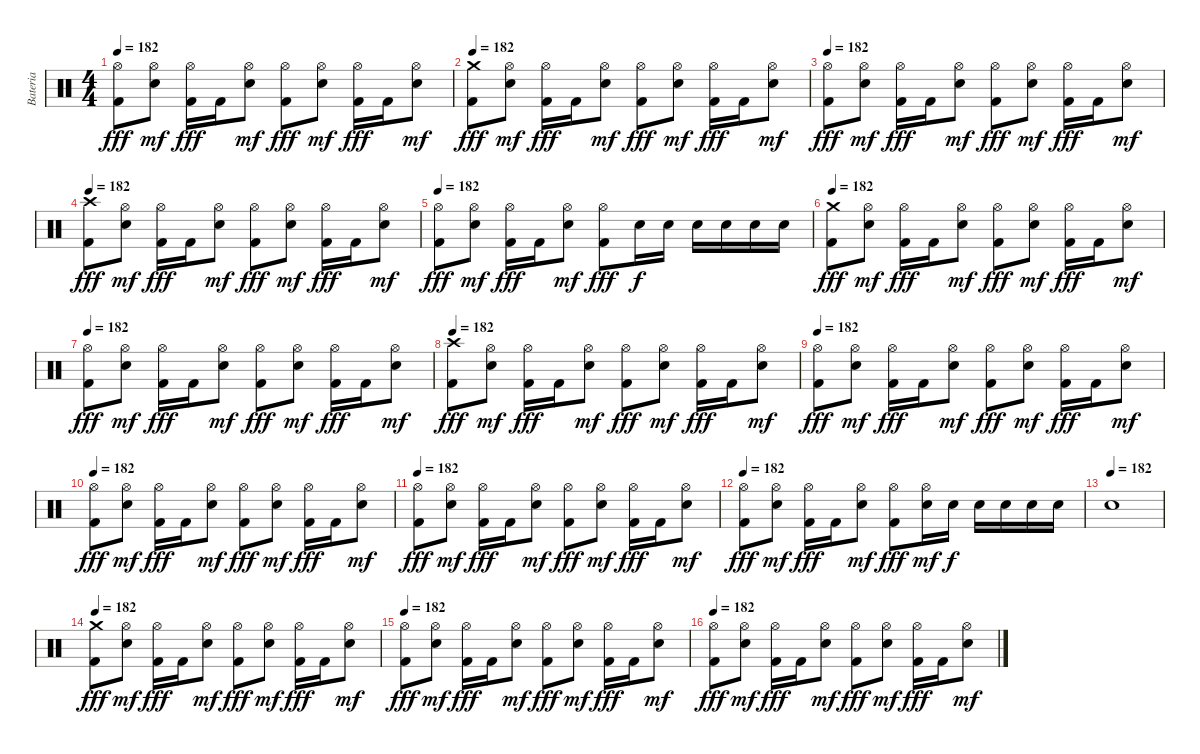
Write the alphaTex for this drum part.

\track ("Bateria" "Bateria") {instrument percussion}
\staff {score}
\articulation defaults
\ts (4 4)
\tempo 182
\clef neutral
\ks c
("Hi-Hat (open)" "Kick (hit) 2").8{dy fff} ("Hi-Hat (open)" "Electric Snare (hit)").8{dy mf} ("Hi-Hat (open)" "Kick (hit) 2").16{dy fff} "Kick (hit) 2".16 ("Hi-Hat (open)" "Electric Snare (hit)").8{dy mf} ("Hi-Hat (open)" "Kick (hit) 2").8{dy fff} ("Hi-Hat (open)" "Electric Snare (hit)").8{dy mf} ("Hi-Hat (open)" "Kick (hit) 2").16{dy fff} "Kick (hit) 2".16 ("Hi-Hat (open)" "Electric Snare (hit)").8{dy mf} |
\tempo 182
("Crash medium (hit)" "Kick (hit) 2").8{dy fff} ("Hi-Hat (open)" "Electric Snare (hit)").8{dy mf} ("Hi-Hat (open)" "Kick (hit) 2").16{dy fff} "Kick (hit) 2".16 ("Hi-Hat (open)" "Electric Snare (hit)").8{dy mf} ("Hi-Hat (open)" "Kick (hit) 2").8{dy fff} ("Hi-Hat (open)" "Electric Snare (hit)").8{dy mf} ("Hi-Hat (open)" "Kick (hit) 2").16{dy fff} "Kick (hit) 2".16 ("Hi-Hat (open)" "Electric Snare (hit)").8{dy mf} |
\tempo 182
("Hi-Hat (open)" "Kick (hit) 2").8{dy fff} ("Hi-Hat (open)" "Electric Snare (hit)").8{dy mf} ("Hi-Hat (open)" "Kick (hit) 2").16{dy fff} "Kick (hit) 2".16 ("Hi-Hat (open)" "Electric Snare (hit)").8{dy mf} ("Hi-Hat (open)" "Kick (hit) 2").8{dy fff} ("Hi-Hat (open)" "Electric Snare (hit)").8{dy mf} ("Hi-Hat (open)" "Kick (hit) 2").16{dy fff} "Kick (hit) 2".16 ("Hi-Hat (open)" "Electric Snare (hit)").8{dy mf} |
\tempo 182
("Crash high (hit)" "Kick (hit) 2").8{dy fff} ("Hi-Hat (open)" "Electric Snare (hit)").8{dy mf} ("Hi-Hat (open)" "Kick (hit) 2").16{dy fff} "Kick (hit) 2".16 ("Hi-Hat (open)" "Electric Snare (hit)").8{dy mf} ("Hi-Hat (open)" "Kick (hit) 2").8{dy fff} ("Hi-Hat (open)" "Electric Snare (hit)").8{dy mf} ("Hi-Hat (open)" "Kick (hit) 2").16{dy fff} "Kick (hit) 2".16 ("Hi-Hat (open)" "Electric Snare (hit)").8{dy mf} |
\tempo 182
("Hi-Hat (open)" "Kick (hit) 2").8{dy fff} ("Hi-Hat (open)" "Electric Snare (hit)").8{dy mf} ("Hi-Hat (open)" "Kick (hit) 2").16{dy fff} "Kick (hit) 2".16 ("Hi-Hat (open)" "Electric Snare (hit)").8{dy mf} ("Hi-Hat (open)" "Kick (hit) 2").8{dy fff} "Electric Snare (hit)".16{dy f} "Electric Snare (hit)".16 "Electric Snare (hit)".16 "Electric Snare (hit)".16 "Electric Snare (hit)".16 "Electric Snare (hit)".16 |
\tempo 182
("Crash medium (hit)" "Kick (hit) 2").8{dy fff} ("Hi-Hat (open)" "Electric Snare (hit)").8{dy mf} ("Hi-Hat (open)" "Kick (hit) 2").16{dy fff} "Kick (hit) 2".16 ("Hi-Hat (open)" "Electric Snare (hit)").8{dy mf} ("Hi-Hat (open)" "Kick (hit) 2").8{dy fff} ("Hi-Hat (open)" "Electric Snare (hit)").8{dy mf} ("Hi-Hat (open)" "Kick (hit) 2").16{dy fff} "Kick (hit) 2".16 ("Hi-Hat (open)" "Electric Snare (hit)").8{dy mf} |
\tempo 182
("Hi-Hat (open)" "Kick (hit) 2").8{dy fff} ("Hi-Hat (open)" "Electric Snare (hit)").8{dy mf} ("Hi-Hat (open)" "Kick (hit) 2").16{dy fff} "Kick (hit) 2".16 ("Hi-Hat (open)" "Electric Snare (hit)").8{dy mf} ("Hi-Hat (open)" "Kick (hit) 2").8{dy fff} ("Hi-Hat (open)" "Electric Snare (hit)").8{dy mf} ("Hi-Hat (open)" "Kick (hit) 2").16{dy fff} "Kick (hit) 2".16 ("Hi-Hat (open)" "Electric Snare (hit)").8{dy mf} |
\tempo 182
("Crash high (hit)" "Kick (hit) 2").8{dy fff} ("Hi-Hat (open)" "Electric Snare (hit)").8{dy mf} ("Hi-Hat (open)" "Kick (hit) 2").16{dy fff} "Kick (hit) 2".16 ("Hi-Hat (open)" "Electric Snare (hit)").8{dy mf} ("Hi-Hat (open)" "Kick (hit) 2").8{dy fff} ("Hi-Hat (open)" "Electric Snare (hit)").8{dy mf} ("Hi-Hat (open)" "Kick (hit) 2").16{dy fff} "Kick (hit) 2".16 ("Hi-Hat (open)" "Electric Snare (hit)").8{dy mf} |
\tempo 182
("Hi-Hat (open)" "Kick (hit) 2").8{dy fff} ("Hi-Hat (open)" "Electric Snare (hit)").8{dy mf} ("Hi-Hat (open)" "Kick (hit) 2").16{dy fff} "Kick (hit) 2".16 ("Hi-Hat (open)" "Electric Snare (hit)").8{dy mf} ("Hi-Hat (open)" "Kick (hit) 2").8{dy fff} ("Hi-Hat (open)" "Electric Snare (hit)").8{dy mf} ("Hi-Hat (open)" "Kick (hit) 2").16{dy fff} "Kick (hit) 2".16 ("Hi-Hat (open)" "Electric Snare (hit)").8{dy mf} |
\tempo 182
("Hi-Hat (open)" "Kick (hit) 2").8{dy fff} ("Hi-Hat (open)" "Electric Snare (hit)").8{dy mf} ("Hi-Hat (open)" "Kick (hit) 2").16{dy fff} "Kick (hit) 2".16 ("Hi-Hat (open)" "Electric Snare (hit)").8{dy mf} ("Hi-Hat (open)" "Kick (hit) 2").8{dy fff} ("Hi-Hat (open)" "Electric Snare (hit)").8{dy mf} ("Hi-Hat (open)" "Kick (hit) 2").16{dy fff} "Kick (hit) 2".16 ("Hi-Hat (open)" "Electric Snare (hit)").8{dy mf} |
\tempo 182
("Hi-Hat (open)" "Kick (hit) 2").8{dy fff} ("Hi-Hat (open)" "Electric Snare (hit)").8{dy mf} ("Hi-Hat (open)" "Kick (hit) 2").16{dy fff} "Kick (hit) 2".16 ("Hi-Hat (open)" "Electric Snare (hit)").8{dy mf} ("Hi-Hat (open)" "Kick (hit) 2").8{dy fff} ("Hi-Hat (open)" "Electric Snare (hit)").8{dy mf} ("Hi-Hat (open)" "Kick (hit) 2").16{dy fff} "Kick (hit) 2".16 ("Hi-Hat (open)" "Electric Snare (hit)").8{dy mf} |
\tempo 182
("Hi-Hat (open)" "Kick (hit) 2").8{dy fff} ("Hi-Hat (open)" "Electric Snare (hit)").8{dy mf} ("Hi-Hat (open)" "Kick (hit) 2").16{dy fff} "Kick (hit) 2".16 ("Hi-Hat (open)" "Electric Snare (hit)").8{dy mf} ("Hi-Hat (open)" "Kick (hit) 2").8{dy fff} ("Hi-Hat (open)" "Electric Snare (hit)").16{dy mf} "Electric Snare (hit)".16{dy f} "Electric Snare (hit)".16 "Electric Snare (hit)".16 "Electric Snare (hit)".16 "Electric Snare (hit)".16 |
\tempo (182)
"Electric Snare (hit)".1 |
\tempo 182
("Crash medium (hit)" "Kick (hit) 2").8{dy fff} ("Hi-Hat (open)" "Electric Snare (hit)").8{dy mf} ("Hi-Hat (open)" "Kick (hit) 2").16{dy fff} "Kick (hit) 2".16 ("Hi-Hat (open)" "Electric Snare (hit)").8{dy mf} ("Hi-Hat (open)" "Kick (hit) 2").8{dy fff} ("Hi-Hat (open)" "Electric Snare (hit)").8{dy mf} ("Hi-Hat (open)" "Kick (hit) 2").16{dy fff} "Kick (hit) 2".16 ("Hi-Hat (open)" "Electric Snare (hit)").8{dy mf} |
\tempo 182
("Hi-Hat (open)" "Kick (hit) 2").8{dy fff} ("Hi-Hat (open)" "Electric Snare (hit)").8{dy mf} ("Hi-Hat (open)" "Kick (hit) 2").16{dy fff} "Kick (hit) 2".16 ("Hi-Hat (open)" "Electric Snare (hit)").8{dy mf} ("Hi-Hat (open)" "Kick (hit) 2").8{dy fff} ("Hi-Hat (open)" "Electric Snare (hit)").8{dy mf} ("Hi-Hat (open)" "Kick (hit) 2").16{dy fff} "Kick (hit) 2".16 ("Hi-Hat (open)" "Electric Snare (hit)").8{dy mf} |
\tempo 182
("Hi-Hat (open)" "Kick (hit) 2").8{dy fff} ("Hi-Hat (open)" "Electric Snare (hit)").8{dy mf} ("Hi-Hat (open)" "Kick (hit) 2").16{dy fff} "Kick (hit) 2".16 ("Hi-Hat (open)" "Electric Snare (hit)").8{dy mf} ("Hi-Hat (open)" "Kick (hit) 2").8{dy fff} ("Hi-Hat (open)" "Electric Snare (hit)").8{dy mf} ("Hi-Hat (open)" "Kick (hit) 2").16{dy fff} "Kick (hit) 2".16 ("Hi-Hat (open)" "Electric Snare (hit)").8{dy mf}
